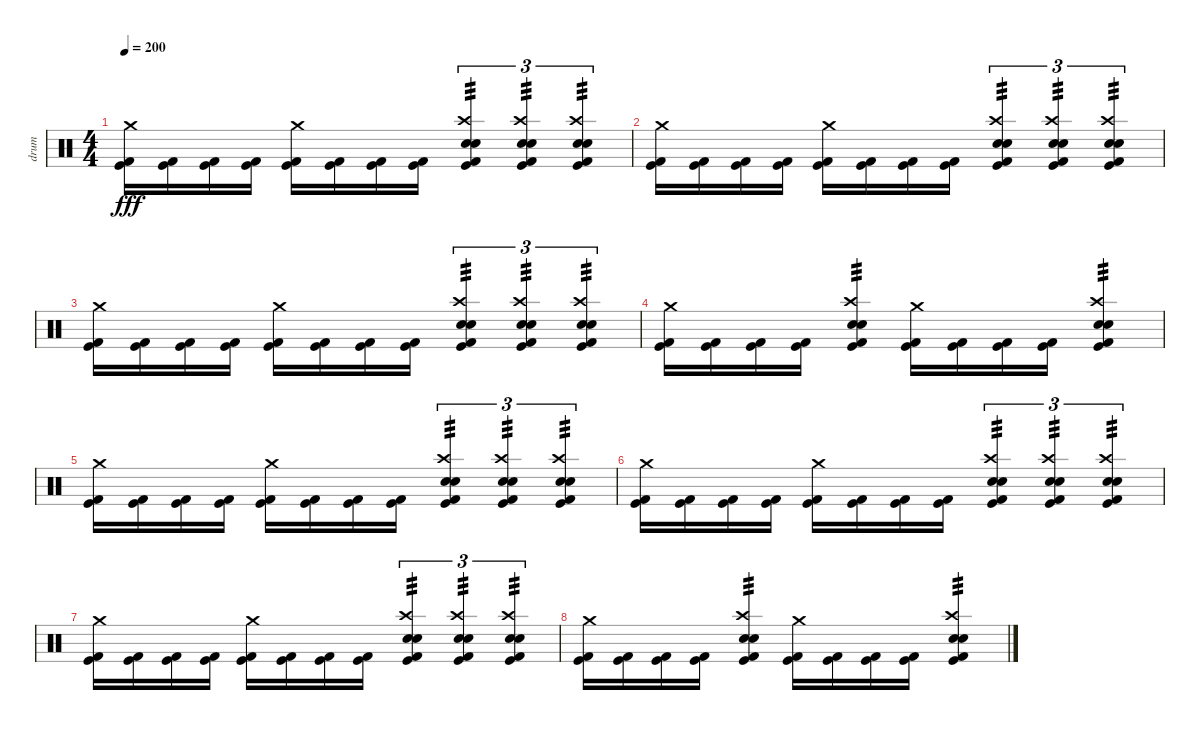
\track ("drum" "drum") {instrument percussion}
\staff {score}
\articulation defaults
\ts (4 4)
\tempo 200
\clef neutral
\ks c
("Crash medium (hit)" "Kick (hit)" "Kick (hit) 2").16{dy fff} ("Kick (hit)" "Kick (hit) 2").16 ("Kick (hit)" "Kick (hit) 2").16 ("Kick (hit)" "Kick (hit) 2").16 ("Crash medium (hit)" "Kick (hit)" "Kick (hit) 2").16 ("Kick (hit)" "Kick (hit) 2").16 ("Kick (hit)" "Kick (hit) 2").16 ("Kick (hit)" "Kick (hit) 2").16 ("Crash high (hit)" "Electric Snare (hit)" "Electric Snare (hit)" "Kick (hit)" "Kick (hit) 2").4{tu (3 2) tp 3} ("Crash high (hit)" "Electric Snare (hit)" "Electric Snare (hit)" "Kick (hit)" "Kick (hit) 2").4{tu (3 2) tp 3} ("Crash high (hit)" "Electric Snare (hit)" "Electric Snare (hit)" "Kick (hit)" "Kick (hit) 2").4{tu (3 2) tp 3} |
("Crash medium (hit)" "Kick (hit)" "Kick (hit) 2").16 ("Kick (hit)" "Kick (hit) 2").16 ("Kick (hit)" "Kick (hit) 2").16 ("Kick (hit)" "Kick (hit) 2").16 ("Crash medium (hit)" "Kick (hit)" "Kick (hit) 2").16 ("Kick (hit)" "Kick (hit) 2").16 ("Kick (hit)" "Kick (hit) 2").16 ("Kick (hit)" "Kick (hit) 2").16 ("Crash high (hit)" "Electric Snare (hit)" "Electric Snare (hit)" "Kick (hit)" "Kick (hit) 2").4{tu (3 2) tp 3} ("Crash high (hit)" "Electric Snare (hit)" "Electric Snare (hit)" "Kick (hit)" "Kick (hit) 2").4{tu (3 2) tp 3} ("Crash high (hit)" "Electric Snare (hit)" "Electric Snare (hit)" "Kick (hit)" "Kick (hit) 2").4{tu (3 2) tp 3} |
("Crash medium (hit)" "Kick (hit)" "Kick (hit) 2").16 ("Kick (hit)" "Kick (hit) 2").16 ("Kick (hit)" "Kick (hit) 2").16 ("Kick (hit)" "Kick (hit) 2").16 ("Crash medium (hit)" "Kick (hit)" "Kick (hit) 2").16 ("Kick (hit)" "Kick (hit) 2").16 ("Kick (hit)" "Kick (hit) 2").16 ("Kick (hit)" "Kick (hit) 2").16 ("Crash high (hit)" "Electric Snare (hit)" "Electric Snare (hit)" "Kick (hit)" "Kick (hit) 2").4{tu (3 2) tp 3} ("Crash high (hit)" "Electric Snare (hit)" "Electric Snare (hit)" "Kick (hit)" "Kick (hit) 2").4{tu (3 2) tp 3} ("Crash high (hit)" "Electric Snare (hit)" "Electric Snare (hit)" "Kick (hit)" "Kick (hit) 2").4{tu (3 2) tp 3} |
("Crash medium (hit)" "Kick (hit)" "Kick (hit) 2").16 ("Kick (hit)" "Kick (hit) 2").16 ("Kick (hit)" "Kick (hit) 2").16 ("Kick (hit)" "Kick (hit) 2").16 ("Crash high (hit)" "Electric Snare (hit)" "Electric Snare (hit)" "Kick (hit)" "Kick (hit) 2").4{tp 3} ("Crash medium (hit)" "Kick (hit)" "Kick (hit) 2").16 ("Kick (hit)" "Kick (hit) 2").16 ("Kick (hit)" "Kick (hit) 2").16 ("Kick (hit)" "Kick (hit) 2").16 ("Crash high (hit)" "Electric Snare (hit)" "Electric Snare (hit)" "Kick (hit)" "Kick (hit) 2").4{tp 3} |
("Crash medium (hit)" "Kick (hit)" "Kick (hit) 2").16 ("Kick (hit)" "Kick (hit) 2").16 ("Kick (hit)" "Kick (hit) 2").16 ("Kick (hit)" "Kick (hit) 2").16 ("Crash medium (hit)" "Kick (hit)" "Kick (hit) 2").16 ("Kick (hit)" "Kick (hit) 2").16 ("Kick (hit)" "Kick (hit) 2").16 ("Kick (hit)" "Kick (hit) 2").16 ("Crash high (hit)" "Electric Snare (hit)" "Electric Snare (hit)" "Kick (hit)" "Kick (hit) 2").4{tu (3 2) tp 3} ("Crash high (hit)" "Electric Snare (hit)" "Electric Snare (hit)" "Kick (hit)" "Kick (hit) 2").4{tu (3 2) tp 3} ("Crash high (hit)" "Electric Snare (hit)" "Electric Snare (hit)" "Kick (hit)" "Kick (hit) 2").4{tu (3 2) tp 3} |
("Crash medium (hit)" "Kick (hit)" "Kick (hit) 2").16 ("Kick (hit)" "Kick (hit) 2").16 ("Kick (hit)" "Kick (hit) 2").16 ("Kick (hit)" "Kick (hit) 2").16 ("Crash medium (hit)" "Kick (hit)" "Kick (hit) 2").16 ("Kick (hit)" "Kick (hit) 2").16 ("Kick (hit)" "Kick (hit) 2").16 ("Kick (hit)" "Kick (hit) 2").16 ("Crash high (hit)" "Electric Snare (hit)" "Electric Snare (hit)" "Kick (hit)" "Kick (hit) 2").4{tu (3 2) tp 3} ("Crash high (hit)" "Electric Snare (hit)" "Electric Snare (hit)" "Kick (hit)" "Kick (hit) 2").4{tu (3 2) tp 3} ("Crash high (hit)" "Electric Snare (hit)" "Electric Snare (hit)" "Kick (hit)" "Kick (hit) 2").4{tu (3 2) tp 3} |
("Crash medium (hit)" "Kick (hit)" "Kick (hit) 2").16 ("Kick (hit)" "Kick (hit) 2").16 ("Kick (hit)" "Kick (hit) 2").16 ("Kick (hit)" "Kick (hit) 2").16 ("Crash medium (hit)" "Kick (hit)" "Kick (hit) 2").16 ("Kick (hit)" "Kick (hit) 2").16 ("Kick (hit)" "Kick (hit) 2").16 ("Kick (hit)" "Kick (hit) 2").16 ("Crash high (hit)" "Electric Snare (hit)" "Electric Snare (hit)" "Kick (hit)" "Kick (hit) 2").4{tu (3 2) tp 3} ("Crash high (hit)" "Electric Snare (hit)" "Electric Snare (hit)" "Kick (hit)" "Kick (hit) 2").4{tu (3 2) tp 3} ("Crash high (hit)" "Electric Snare (hit)" "Electric Snare (hit)" "Kick (hit)" "Kick (hit) 2").4{tu (3 2) tp 3} |
("Crash medium (hit)" "Kick (hit)" "Kick (hit) 2").16 ("Kick (hit)" "Kick (hit) 2").16 ("Kick (hit)" "Kick (hit) 2").16 ("Kick (hit)" "Kick (hit) 2").16 ("Crash high (hit)" "Electric Snare (hit)" "Electric Snare (hit)" "Kick (hit)" "Kick (hit) 2").4{tp 3} ("Crash medium (hit)" "Kick (hit)" "Kick (hit) 2").16 ("Kick (hit)" "Kick (hit) 2").16 ("Kick (hit)" "Kick (hit) 2").16 ("Kick (hit)" "Kick (hit) 2").16 ("Crash high (hit)" "Electric Snare (hit)" "Electric Snare (hit)" "Kick (hit)" "Kick (hit) 2").4{tp 3}
